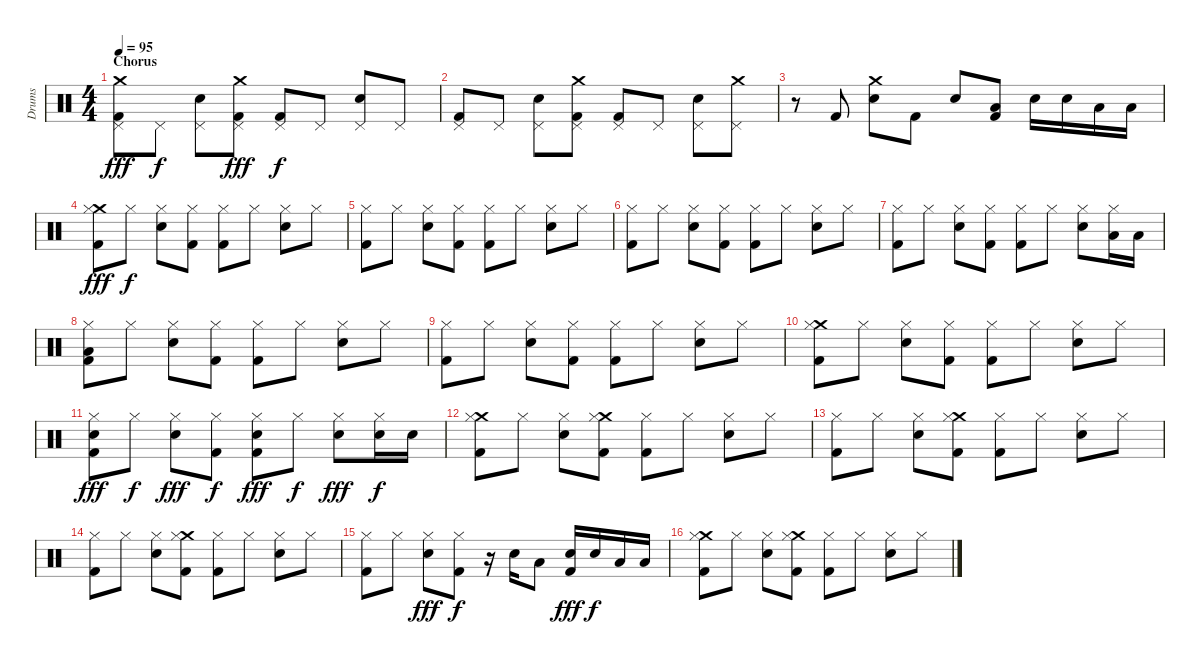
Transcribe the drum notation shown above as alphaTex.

\track ("Drums" "Drums") {instrument percussion}
\staff {score}
\articulation defaults
\ts (4 4)
\section ("" "Chorus")
\tempo 95
\clef neutral
\ks c
("Crash medium (hit)" "Pedal Hi-Hat (hit)" "Kick (hit) 2").8{dy fff} "Pedal Hi-Hat (hit)".8{dy f} ("Pedal Hi-Hat (hit)" "Snare (hit) 2").8 ("Crash medium (hit)" "Pedal Hi-Hat (hit)" "Kick (hit) 2").8{dy fff} ("Pedal Hi-Hat (hit)" "Kick (hit) 2").8{dy f} "Pedal Hi-Hat (hit)".8 ("Pedal Hi-Hat (hit)" "Snare (hit) 2").8 "Pedal Hi-Hat (hit)".8 |
("Pedal Hi-Hat (hit)" "Kick (hit) 2").8 "Pedal Hi-Hat (hit)".8 ("Pedal Hi-Hat (hit)" "Snare (hit) 2").8 ("Crash medium (hit)" "Pedal Hi-Hat (hit)" "Kick (hit) 2").8 ("Pedal Hi-Hat (hit)" "Kick (hit) 2").8 "Pedal Hi-Hat (hit)".8 ("Pedal Hi-Hat (hit)" "Snare (hit) 2").8 ("Crash medium (hit)" "Pedal Hi-Hat (hit)").8 |
r.8 "Kick (hit) 2".8 ("Crash medium (hit)" "Snare (hit) 2").8 "Kick (hit) 2".8 "Snare (hit) 2".8 ("Low Floor Tom (hit)" "Kick (hit) 2").8 "Snare (hit) 2".16 "Snare (hit) 2".16 "Low Floor Tom (hit)".16 "Low Floor Tom (hit)".16 |
("Crash medium (hit)" "Hi-Hat (closed)" "Kick (hit) 2").8{dy fff} "Hi-Hat (closed)".8{dy f} ("Hi-Hat (closed)" "Snare (hit) 2").8 ("Hi-Hat (closed)" "Kick (hit) 2").8 ("Hi-Hat (closed)" "Kick (hit) 2").8 "Hi-Hat (closed)".8 ("Hi-Hat (closed)" "Snare (hit) 2").8 "Hi-Hat (closed)".8 |
("Hi-Hat (closed)" "Kick (hit) 2").8 "Hi-Hat (closed)".8 ("Hi-Hat (closed)" "Snare (hit) 2").8 ("Hi-Hat (closed)" "Kick (hit) 2").8 ("Hi-Hat (closed)" "Kick (hit) 2").8 "Hi-Hat (closed)".8 ("Hi-Hat (closed)" "Snare (hit) 2").8 "Hi-Hat (closed)".8 |
("Hi-Hat (closed)" "Kick (hit) 2").8 "Hi-Hat (closed)".8 ("Hi-Hat (closed)" "Snare (hit) 2").8 ("Hi-Hat (closed)" "Kick (hit) 2").8 ("Hi-Hat (closed)" "Kick (hit) 2").8 "Hi-Hat (closed)".8 ("Hi-Hat (closed)" "Snare (hit) 2").8 "Hi-Hat (closed)".8 |
("Hi-Hat (closed)" "Kick (hit) 2").8 "Hi-Hat (closed)".8 ("Hi-Hat (closed)" "Snare (hit) 2").8 ("Hi-Hat (closed)" "Kick (hit) 2").8 ("Hi-Hat (closed)" "Kick (hit) 2").8 "Hi-Hat (closed)".8 ("Hi-Hat (closed)" "Snare (hit) 2").8 ("Hi-Hat (closed)" "Low Floor Tom (hit)").16 "Low Floor Tom (hit)".16 |
("Hi-Hat (closed)" "Low Floor Tom (hit)" "Kick (hit) 2").8 "Hi-Hat (closed)".8 ("Hi-Hat (closed)" "Snare (hit) 2").8 ("Hi-Hat (closed)" "Kick (hit) 2").8 ("Hi-Hat (closed)" "Kick (hit) 2").8 "Hi-Hat (closed)".8 ("Hi-Hat (closed)" "Snare (hit) 2").8 "Hi-Hat (closed)".8 |
("Hi-Hat (closed)" "Kick (hit) 2").8 "Hi-Hat (closed)".8 ("Hi-Hat (closed)" "Snare (hit) 2").8 ("Hi-Hat (closed)" "Kick (hit) 2").8 ("Hi-Hat (closed)" "Kick (hit) 2").8 "Hi-Hat (closed)".8 ("Hi-Hat (closed)" "Snare (hit) 2").8 "Hi-Hat (closed)".8 |
("Crash medium (hit)" "Hi-Hat (closed)" "Kick (hit) 2").8 "Hi-Hat (closed)".8 ("Hi-Hat (closed)" "Snare (hit) 2").8 ("Hi-Hat (closed)" "Kick (hit) 2").8 ("Hi-Hat (closed)" "Kick (hit) 2").8 "Hi-Hat (closed)".8 ("Hi-Hat (closed)" "Snare (hit) 2").8 "Hi-Hat (closed)".8 |
("Hi-Hat (closed)" "Snare (hit) 2" "Kick (hit) 2").8{dy fff} "Hi-Hat (closed)".8{dy f} ("Hi-Hat (closed)" "Snare (hit) 2").8{dy fff} ("Hi-Hat (closed)" "Kick (hit) 2").8{dy f} ("Hi-Hat (closed)" "Snare (hit) 2" "Kick (hit) 2").8{dy fff} "Hi-Hat (closed)".8{dy f} ("Hi-Hat (closed)" "Snare (hit) 2").8{dy fff} ("Hi-Hat (closed)" "Snare (hit) 2").16{dy f} "Snare (hit) 2".16 |
("Crash medium (hit)" "Hi-Hat (closed)" "Kick (hit) 2").8 "Hi-Hat (closed)".8 ("Hi-Hat (closed)" "Snare (hit) 2").8 ("Crash medium (hit)" "Hi-Hat (closed)" "Kick (hit) 2").8 ("Hi-Hat (closed)" "Kick (hit) 2").8 "Hi-Hat (closed)".8 ("Hi-Hat (closed)" "Snare (hit) 2").8 "Hi-Hat (closed)".8 |
("Hi-Hat (closed)" "Kick (hit) 2").8 "Hi-Hat (closed)".8 ("Hi-Hat (closed)" "Snare (hit) 2").8 ("Crash medium (hit)" "Hi-Hat (closed)" "Kick (hit) 2").8 ("Hi-Hat (closed)" "Kick (hit) 2").8 "Hi-Hat (closed)".8 ("Hi-Hat (closed)" "Snare (hit) 2").8 "Hi-Hat (closed)".8 |
("Hi-Hat (closed)" "Kick (hit) 2").8 "Hi-Hat (closed)".8 ("Hi-Hat (closed)" "Snare (hit) 2").8 ("Crash medium (hit)" "Hi-Hat (closed)" "Kick (hit) 2").8 ("Hi-Hat (closed)" "Kick (hit) 2").8 "Hi-Hat (closed)".8 ("Hi-Hat (closed)" "Snare (hit) 2").8 "Hi-Hat (closed)".8 |
("Hi-Hat (closed)" "Kick (hit) 2").8 "Hi-Hat (closed)".8 ("Hi-Hat (closed)" "Snare (hit) 2").8{dy fff} ("Hi-Hat (closed)" "Kick (hit) 2").8{dy f} r.16 "Snare (hit) 2".16 "Low Floor Tom (hit)".8 ("Snare (hit) 2" "Kick (hit) 2").16{dy fff} "Snare (hit) 2".16{dy f} "Low Floor Tom (hit)".16 "Low Floor Tom (hit)".16 |
("Crash medium (hit)" "Hi-Hat (closed)" "Kick (hit) 2").8 "Hi-Hat (closed)".8 ("Hi-Hat (closed)" "Snare (hit) 2").8 ("Crash medium (hit)" "Hi-Hat (closed)" "Kick (hit) 2").8 ("Hi-Hat (closed)" "Kick (hit) 2").8 "Hi-Hat (closed)".8 ("Hi-Hat (closed)" "Snare (hit) 2").8 "Hi-Hat (closed)".8
